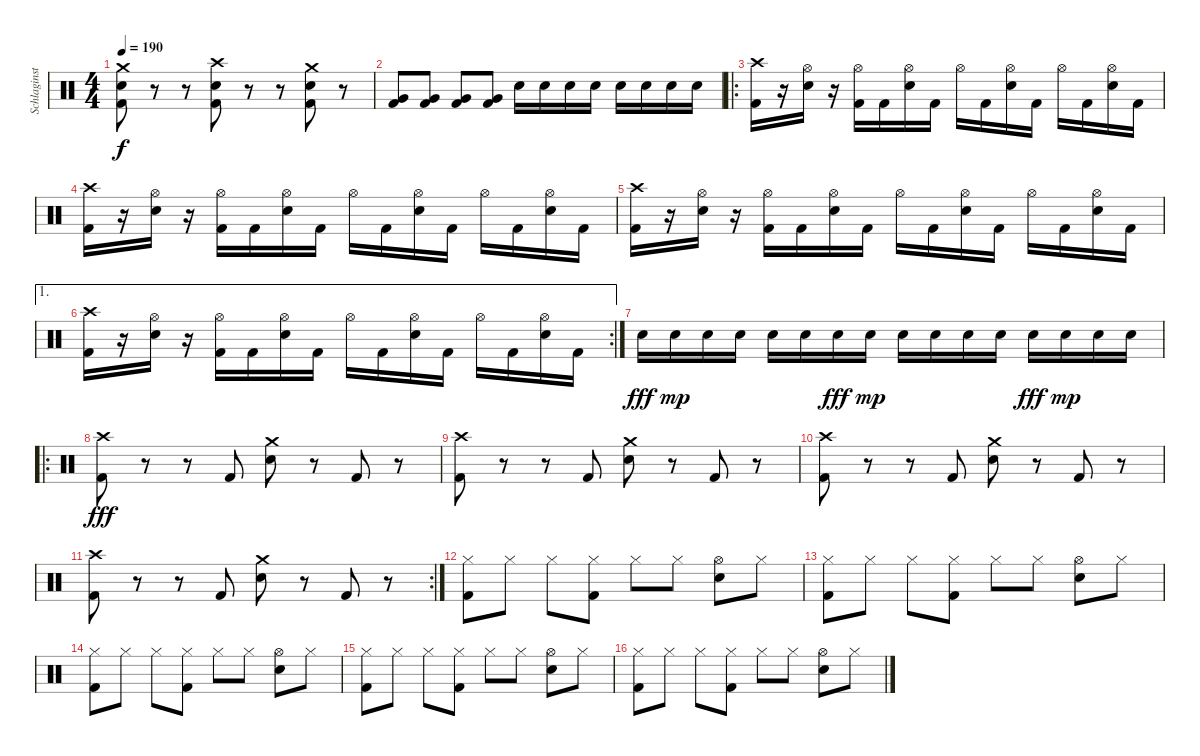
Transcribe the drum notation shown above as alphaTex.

\track ("Schlaginstrumente - Auswahl" "Schlaginst") {instrument percussion}
\staff {score}
\articulation defaults
\ts (4 4)
\tempo 190
\clef neutral
\ks c
("Crash medium (hit)" "Electric Snare (hit)" "Kick (hit) 2").8{dy f} r.8 r.8 ("Crash high (hit)" "Electric Snare (hit)" "Kick (hit) 2").8 r.8 r.8 ("Crash medium (hit)" "Electric Snare (hit)" "Kick (hit) 2").8 r.8 |
("Very Low Tom (hit)" "Kick (hit) 2").8 ("Very Low Tom (hit)" "Kick (hit) 2").8 ("Very Low Tom (hit)" "Kick (hit) 2").8 ("Very Low Tom (hit)" "Kick (hit) 2").8 "Electric Snare (hit)".16 "Electric Snare (hit)".16 "Electric Snare (hit)".16 "Electric Snare (hit)".16 "Electric Snare (hit)".16 "Electric Snare (hit)".16 "Electric Snare (hit)".16 "Electric Snare (hit)".16 |
\ro
("Crash high (hit)" "Kick (hit) 2").16 r.16 ("Hi-Hat (open)" "Electric Snare (hit)").16 r.16 ("Hi-Hat (open)" "Kick (hit) 2").16 "Kick (hit) 2".16 ("Hi-Hat (open)" "Electric Snare (hit)").16 "Kick (hit) 2".16 "Hi-Hat (open)".16 "Kick (hit) 2".16 ("Hi-Hat (open)" "Electric Snare (hit)").16 "Kick (hit) 2".16 "Hi-Hat (open)".16 "Kick (hit) 2".16 ("Hi-Hat (open)" "Electric Snare (hit)").16 "Kick (hit) 2".16 |
("Crash high (hit)" "Kick (hit) 2").16 r.16 ("Hi-Hat (open)" "Electric Snare (hit)").16 r.16 ("Hi-Hat (open)" "Kick (hit) 2").16 "Kick (hit) 2".16 ("Hi-Hat (open)" "Electric Snare (hit)").16 "Kick (hit) 2".16 "Hi-Hat (open)".16 "Kick (hit) 2".16 ("Hi-Hat (open)" "Electric Snare (hit)").16 "Kick (hit) 2".16 "Hi-Hat (open)".16 "Kick (hit) 2".16 ("Hi-Hat (open)" "Electric Snare (hit)").16 "Kick (hit) 2".16 |
("Crash high (hit)" "Kick (hit) 2").16 r.16 ("Hi-Hat (open)" "Electric Snare (hit)").16 r.16 ("Hi-Hat (open)" "Kick (hit) 2").16 "Kick (hit) 2".16 ("Hi-Hat (open)" "Electric Snare (hit)").16 "Kick (hit) 2".16 "Hi-Hat (open)".16 "Kick (hit) 2".16 ("Hi-Hat (open)" "Electric Snare (hit)").16 "Kick (hit) 2".16 "Hi-Hat (open)".16 "Kick (hit) 2".16 ("Hi-Hat (open)" "Electric Snare (hit)").16 "Kick (hit) 2".16 |
\ae 1
\rc 2
("Crash high (hit)" "Kick (hit) 2").16 r.16 ("Hi-Hat (open)" "Electric Snare (hit)").16 r.16 ("Hi-Hat (open)" "Kick (hit) 2").16 "Kick (hit) 2".16 ("Hi-Hat (open)" "Electric Snare (hit)").16 "Kick (hit) 2".16 "Hi-Hat (open)".16 "Kick (hit) 2".16 ("Hi-Hat (open)" "Electric Snare (hit)").16 "Kick (hit) 2".16 "Hi-Hat (open)".16 "Kick (hit) 2".16 ("Hi-Hat (open)" "Electric Snare (hit)").16 "Kick (hit) 2".16 |
"Electric Snare (hit)".16{dy fff} "Electric Snare (hit)".16{dy mp} "Electric Snare (hit)".16 "Electric Snare (hit)".16 "Electric Snare (hit)".16 "Electric Snare (hit)".16 "Electric Snare (hit)".16{dy fff} "Electric Snare (hit)".16{dy mp} "Electric Snare (hit)".16 "Electric Snare (hit)".16 "Electric Snare (hit)".16 "Electric Snare (hit)".16 "Electric Snare (hit)".16{dy fff} "Electric Snare (hit)".16{dy mp} "Electric Snare (hit)".16 "Electric Snare (hit)".16 |
\ro
("Crash high (hit)" "Kick (hit) 2").8{dy fff} r.8 r.8 "Kick (hit) 2".8 ("Crash medium (hit)" "Electric Snare (hit)").8 r.8 "Kick (hit) 2".8 r.8 |
("Crash high (hit)" "Kick (hit) 2").8 r.8 r.8 "Kick (hit) 2".8 ("Crash medium (hit)" "Electric Snare (hit)").8 r.8 "Kick (hit) 2".8 r.8 |
("Crash high (hit)" "Kick (hit) 2").8 r.8 r.8 "Kick (hit) 2".8 ("Crash medium (hit)" "Electric Snare (hit)").8 r.8 "Kick (hit) 2".8 r.8 |
\rc 2
("Crash high (hit)" "Kick (hit) 2").8 r.8 r.8 "Kick (hit) 2".8 ("Crash medium (hit)" "Electric Snare (hit)").8 r.8 "Kick (hit) 2".8 r.8 |
("Hi-Hat (closed)" "Kick (hit) 2").8 "Hi-Hat (closed)".8 "Hi-Hat (closed)".8 ("Hi-Hat (closed)" "Kick (hit) 2").8 "Hi-Hat (closed)".8 "Hi-Hat (closed)".8 ("Hi-Hat (open)" "Electric Snare (hit)").8 "Hi-Hat (closed)".8 |
("Hi-Hat (closed)" "Kick (hit) 2").8 "Hi-Hat (closed)".8 "Hi-Hat (closed)".8 ("Hi-Hat (closed)" "Kick (hit) 2").8 "Hi-Hat (closed)".8 "Hi-Hat (closed)".8 ("Hi-Hat (open)" "Electric Snare (hit)").8 "Hi-Hat (closed)".8 |
("Hi-Hat (closed)" "Kick (hit) 2").8 "Hi-Hat (closed)".8 "Hi-Hat (closed)".8 ("Hi-Hat (closed)" "Kick (hit) 2").8 "Hi-Hat (closed)".8 "Hi-Hat (closed)".8 ("Hi-Hat (open)" "Electric Snare (hit)").8 "Hi-Hat (closed)".8 |
("Hi-Hat (closed)" "Kick (hit) 2").8 "Hi-Hat (closed)".8 "Hi-Hat (closed)".8 ("Hi-Hat (closed)" "Kick (hit) 2").8 "Hi-Hat (closed)".8 "Hi-Hat (closed)".8 ("Hi-Hat (open)" "Electric Snare (hit)").8 "Hi-Hat (closed)".8 |
("Hi-Hat (closed)" "Kick (hit) 2").8 "Hi-Hat (closed)".8 "Hi-Hat (closed)".8 ("Hi-Hat (closed)" "Kick (hit) 2").8 "Hi-Hat (closed)".8 "Hi-Hat (closed)".8 ("Hi-Hat (open)" "Electric Snare (hit)").8 "Hi-Hat (closed)".8
